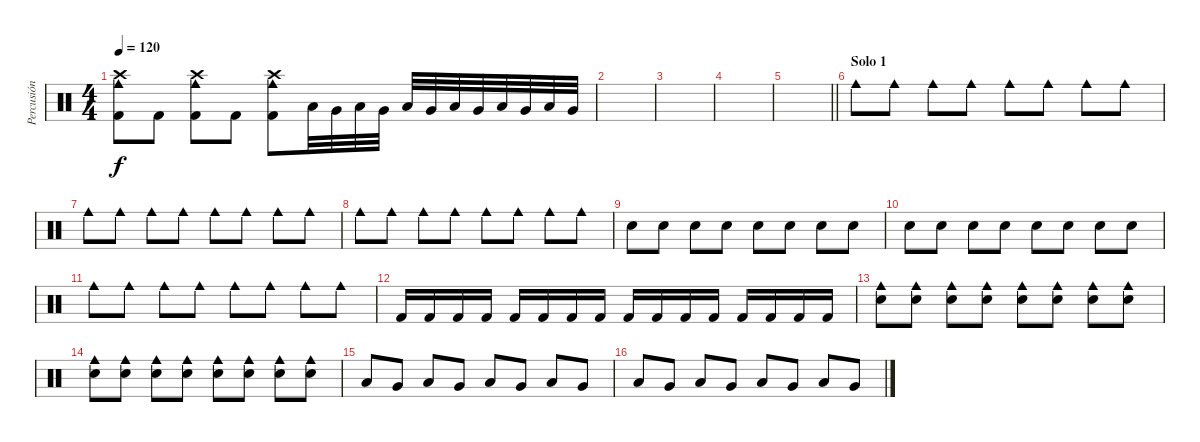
\track ("Percusión" "Percusión") {instrument percussion}
\staff {score}
\articulation defaults
\ts (4 4)
\tempo 120
\clef neutral
\ks c
("Crash high (hit)" "Cowbell medium (hit)" "Kick (hit) 2").8{dy f} "Kick (hit) 2".8 ("Crash high (hit)" "Cowbell medium (hit)" "Kick (hit) 2").8 "Kick (hit) 2".8 ("Crash high (hit)" "Cowbell medium (hit)" "Kick (hit) 2").8 "Low Floor Tom (hit)".32 "Very Low Tom (hit)".32 "Low Floor Tom (hit)".32 "Very Low Tom (hit)".32 "Low Floor Tom (hit)".32 "Very Low Tom (hit)".32 "Low Floor Tom (hit)".32 "Very Low Tom (hit)".32 "Low Floor Tom (hit)".32 "Very Low Tom (hit)".32 "Low Floor Tom (hit)".32 "Very Low Tom (hit)".32 |
|
|
|
\barLineRight lightlight
|
\section ("" "Solo 1")
"Cowbell medium (hit)".8 "Cowbell medium (hit)".8 "Cowbell medium (hit)".8 "Cowbell medium (hit)".8 "Cowbell medium (hit)".8 "Cowbell medium (hit)".8 "Cowbell medium (hit)".8 "Cowbell medium (hit)".8 |
"Cowbell medium (hit)".8 "Cowbell medium (hit)".8 "Cowbell medium (hit)".8 "Cowbell medium (hit)".8 "Cowbell medium (hit)".8 "Cowbell medium (hit)".8 "Cowbell medium (hit)".8 "Cowbell medium (hit)".8 |
"Cowbell medium (hit)".8 "Cowbell medium (hit)".8 "Cowbell medium (hit)".8 "Cowbell medium (hit)".8 "Cowbell medium (hit)".8 "Cowbell medium (hit)".8 "Cowbell medium (hit)".8 "Cowbell medium (hit)".8 |
"Hand Clap (hit)".8 "Hand Clap (hit)".8 "Hand Clap (hit)".8 "Hand Clap (hit)".8 "Hand Clap (hit)".8 "Hand Clap (hit)".8 "Hand Clap (hit)".8 "Hand Clap (hit)".8 |
"Hand Clap (hit)".8 "Hand Clap (hit)".8 "Hand Clap (hit)".8 "Hand Clap (hit)".8 "Hand Clap (hit)".8 "Hand Clap (hit)".8 "Hand Clap (hit)".8 "Hand Clap (hit)".8 |
"Cowbell medium (hit)".8 "Cowbell medium (hit)".8 "Cowbell medium (hit)".8 "Cowbell medium (hit)".8 "Cowbell medium (hit)".8 "Cowbell medium (hit)".8 "Cowbell medium (hit)".8 "Cowbell medium (hit)".8 |
"Kick (hit) 2".16 "Kick (hit) 2".16 "Kick (hit) 2".16 "Kick (hit) 2".16 "Kick (hit) 2".16 "Kick (hit) 2".16 "Kick (hit) 2".16 "Kick (hit) 2".16 "Kick (hit) 2".16 "Kick (hit) 2".16 "Kick (hit) 2".16 "Kick (hit) 2".16 "Kick (hit) 2".16 "Kick (hit) 2".16 "Kick (hit) 2".16 "Kick (hit) 2".16 |
("Hand Clap (hit)" "Cowbell medium (hit)").8 ("Hand Clap (hit)" "Cowbell medium (hit)").8 ("Hand Clap (hit)" "Cowbell medium (hit)").8 ("Hand Clap (hit)" "Cowbell medium (hit)").8 ("Hand Clap (hit)" "Cowbell medium (hit)").8 ("Hand Clap (hit)" "Cowbell medium (hit)").8 ("Hand Clap (hit)" "Cowbell medium (hit)").8 ("Hand Clap (hit)" "Cowbell medium (hit)").8 |
("Hand Clap (hit)" "Cowbell medium (hit)").8 ("Hand Clap (hit)" "Cowbell medium (hit)").8 ("Hand Clap (hit)" "Cowbell medium (hit)").8 ("Hand Clap (hit)" "Cowbell medium (hit)").8 ("Hand Clap (hit)" "Cowbell medium (hit)").8 ("Hand Clap (hit)" "Cowbell medium (hit)").8 ("Hand Clap (hit)" "Cowbell medium (hit)").8 ("Hand Clap (hit)" "Cowbell medium (hit)").8 |
"Low Floor Tom (hit)".8 "Very Low Tom (hit)".8 "Low Floor Tom (hit)".8 "Very Low Tom (hit)".8 "Low Floor Tom (hit)".8 "Very Low Tom (hit)".8 "Low Floor Tom (hit)".8 "Very Low Tom (hit)".8 |
"Low Floor Tom (hit)".8 "Very Low Tom (hit)".8 "Low Floor Tom (hit)".8 "Very Low Tom (hit)".8 "Low Floor Tom (hit)".8 "Very Low Tom (hit)".8 "Low Floor Tom (hit)".8 "Very Low Tom (hit)".8
